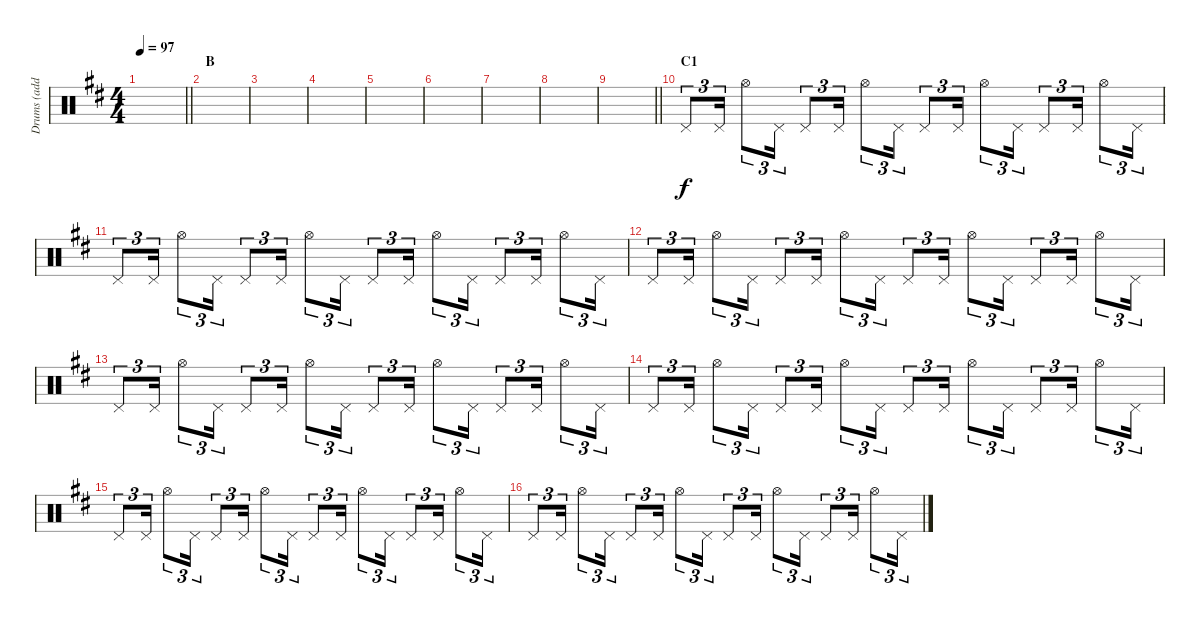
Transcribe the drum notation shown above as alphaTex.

\track ("Drums (additional)" "Drums (add") {instrument percussion}
\staff {score}
\articulation defaults
\ts (4 4)
\tempo 97
\clef neutral
\barLineRight lightlight
\ks d
|
\section ("" "B")
|
|
|
|
|
|
|
\barLineRight lightlight
|
\section ("" "C1")
"Pedal Hi-Hat (hit)".8{tu (3 2)} "Pedal Hi-Hat (hit)".16{tu (3 2)} "Hi-Hat (open)".8{tu (3 2)} "Pedal Hi-Hat (hit)".16{tu (3 2)} "Pedal Hi-Hat (hit)".8{tu (3 2)} "Pedal Hi-Hat (hit)".16{tu (3 2)} "Hi-Hat (open)".8{tu (3 2)} "Pedal Hi-Hat (hit)".16{tu (3 2)} "Pedal Hi-Hat (hit)".8{tu (3 2)} "Pedal Hi-Hat (hit)".16{tu (3 2)} "Hi-Hat (open)".8{tu (3 2)} "Pedal Hi-Hat (hit)".16{tu (3 2)} "Pedal Hi-Hat (hit)".8{tu (3 2)} "Pedal Hi-Hat (hit)".16{tu (3 2)} "Hi-Hat (open)".8{tu (3 2)} "Pedal Hi-Hat (hit)".16{tu (3 2)} |
"Pedal Hi-Hat (hit)".8{tu (3 2)} "Pedal Hi-Hat (hit)".16{tu (3 2)} "Hi-Hat (open)".8{tu (3 2)} "Pedal Hi-Hat (hit)".16{tu (3 2)} "Pedal Hi-Hat (hit)".8{tu (3 2)} "Pedal Hi-Hat (hit)".16{tu (3 2)} "Hi-Hat (open)".8{tu (3 2)} "Pedal Hi-Hat (hit)".16{tu (3 2)} "Pedal Hi-Hat (hit)".8{tu (3 2)} "Pedal Hi-Hat (hit)".16{tu (3 2)} "Hi-Hat (open)".8{tu (3 2)} "Pedal Hi-Hat (hit)".16{tu (3 2)} "Pedal Hi-Hat (hit)".8{tu (3 2)} "Pedal Hi-Hat (hit)".16{tu (3 2)} "Hi-Hat (open)".8{tu (3 2)} "Pedal Hi-Hat (hit)".16{tu (3 2)} |
"Pedal Hi-Hat (hit)".8{tu (3 2)} "Pedal Hi-Hat (hit)".16{tu (3 2)} "Hi-Hat (open)".8{tu (3 2)} "Pedal Hi-Hat (hit)".16{tu (3 2)} "Pedal Hi-Hat (hit)".8{tu (3 2)} "Pedal Hi-Hat (hit)".16{tu (3 2)} "Hi-Hat (open)".8{tu (3 2)} "Pedal Hi-Hat (hit)".16{tu (3 2)} "Pedal Hi-Hat (hit)".8{tu (3 2)} "Pedal Hi-Hat (hit)".16{tu (3 2)} "Hi-Hat (open)".8{tu (3 2)} "Pedal Hi-Hat (hit)".16{tu (3 2)} "Pedal Hi-Hat (hit)".8{tu (3 2)} "Pedal Hi-Hat (hit)".16{tu (3 2)} "Hi-Hat (open)".8{tu (3 2)} "Pedal Hi-Hat (hit)".16{tu (3 2)} |
"Pedal Hi-Hat (hit)".8{tu (3 2)} "Pedal Hi-Hat (hit)".16{tu (3 2)} "Hi-Hat (open)".8{tu (3 2)} "Pedal Hi-Hat (hit)".16{tu (3 2)} "Pedal Hi-Hat (hit)".8{tu (3 2)} "Pedal Hi-Hat (hit)".16{tu (3 2)} "Hi-Hat (open)".8{tu (3 2)} "Pedal Hi-Hat (hit)".16{tu (3 2)} "Pedal Hi-Hat (hit)".8{tu (3 2)} "Pedal Hi-Hat (hit)".16{tu (3 2)} "Hi-Hat (open)".8{tu (3 2)} "Pedal Hi-Hat (hit)".16{tu (3 2)} "Pedal Hi-Hat (hit)".8{tu (3 2)} "Pedal Hi-Hat (hit)".16{tu (3 2)} "Hi-Hat (open)".8{tu (3 2)} "Pedal Hi-Hat (hit)".16{tu (3 2)} |
"Pedal Hi-Hat (hit)".8{tu (3 2)} "Pedal Hi-Hat (hit)".16{tu (3 2)} "Hi-Hat (open)".8{tu (3 2)} "Pedal Hi-Hat (hit)".16{tu (3 2)} "Pedal Hi-Hat (hit)".8{tu (3 2)} "Pedal Hi-Hat (hit)".16{tu (3 2)} "Hi-Hat (open)".8{tu (3 2)} "Pedal Hi-Hat (hit)".16{tu (3 2)} "Pedal Hi-Hat (hit)".8{tu (3 2)} "Pedal Hi-Hat (hit)".16{tu (3 2)} "Hi-Hat (open)".8{tu (3 2)} "Pedal Hi-Hat (hit)".16{tu (3 2)} "Pedal Hi-Hat (hit)".8{tu (3 2)} "Pedal Hi-Hat (hit)".16{tu (3 2)} "Hi-Hat (open)".8{tu (3 2)} "Pedal Hi-Hat (hit)".16{tu (3 2)} |
"Pedal Hi-Hat (hit)".8{tu (3 2)} "Pedal Hi-Hat (hit)".16{tu (3 2)} "Hi-Hat (open)".8{tu (3 2)} "Pedal Hi-Hat (hit)".16{tu (3 2)} "Pedal Hi-Hat (hit)".8{tu (3 2)} "Pedal Hi-Hat (hit)".16{tu (3 2)} "Hi-Hat (open)".8{tu (3 2)} "Pedal Hi-Hat (hit)".16{tu (3 2)} "Pedal Hi-Hat (hit)".8{tu (3 2)} "Pedal Hi-Hat (hit)".16{tu (3 2)} "Hi-Hat (open)".8{tu (3 2)} "Pedal Hi-Hat (hit)".16{tu (3 2)} "Pedal Hi-Hat (hit)".8{tu (3 2)} "Pedal Hi-Hat (hit)".16{tu (3 2)} "Hi-Hat (open)".8{tu (3 2)} "Pedal Hi-Hat (hit)".16{tu (3 2)} |
"Pedal Hi-Hat (hit)".8{tu (3 2)} "Pedal Hi-Hat (hit)".16{tu (3 2)} "Hi-Hat (open)".8{tu (3 2)} "Pedal Hi-Hat (hit)".16{tu (3 2)} "Pedal Hi-Hat (hit)".8{tu (3 2)} "Pedal Hi-Hat (hit)".16{tu (3 2)} "Hi-Hat (open)".8{tu (3 2)} "Pedal Hi-Hat (hit)".16{tu (3 2)} "Pedal Hi-Hat (hit)".8{tu (3 2)} "Pedal Hi-Hat (hit)".16{tu (3 2)} "Hi-Hat (open)".8{tu (3 2)} "Pedal Hi-Hat (hit)".16{tu (3 2)} "Pedal Hi-Hat (hit)".8{tu (3 2)} "Pedal Hi-Hat (hit)".16{tu (3 2)} "Hi-Hat (open)".8{tu (3 2)} "Pedal Hi-Hat (hit)".16{tu (3 2)}
